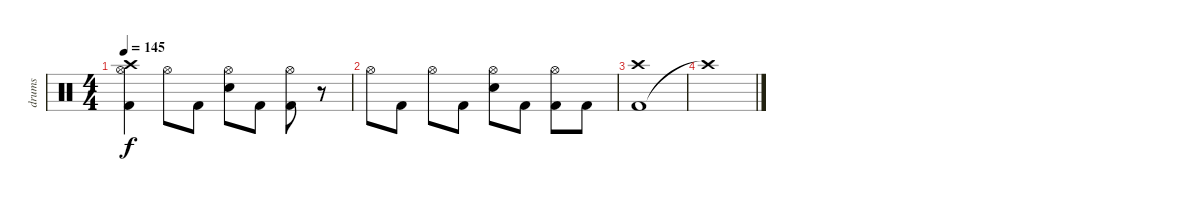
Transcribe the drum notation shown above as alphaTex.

\track ("drums" "drums") {instrument percussion}
\staff {score}
\articulation defaults
\ts (4 4)
\tempo 145
\clef neutral
\ks c
("Kick (hit) 2" "Hi-Hat (open)" "Crash high (hit)").4{dy f} "Hi-Hat (open)".8 "Kick (hit) 2".8 ("Snare (hit) 2" "Hi-Hat (open)").8 "Kick (hit) 2".8 ("Kick (hit) 2" "Hi-Hat (open)").8 r.8 |
"Hi-Hat (open)".8 "Kick (hit) 2".8 "Hi-Hat (open)".8 "Kick (hit) 2".8 ("Snare (hit) 2" "Hi-Hat (open)").8 "Kick (hit) 2".8 ("Kick (hit) 2" "Hi-Hat (open)").8 "Kick (hit) 2".8 |
("Kick (hit) 2" "Crash high (hit)").1 |
"Crash high (hit)"{t}.1
